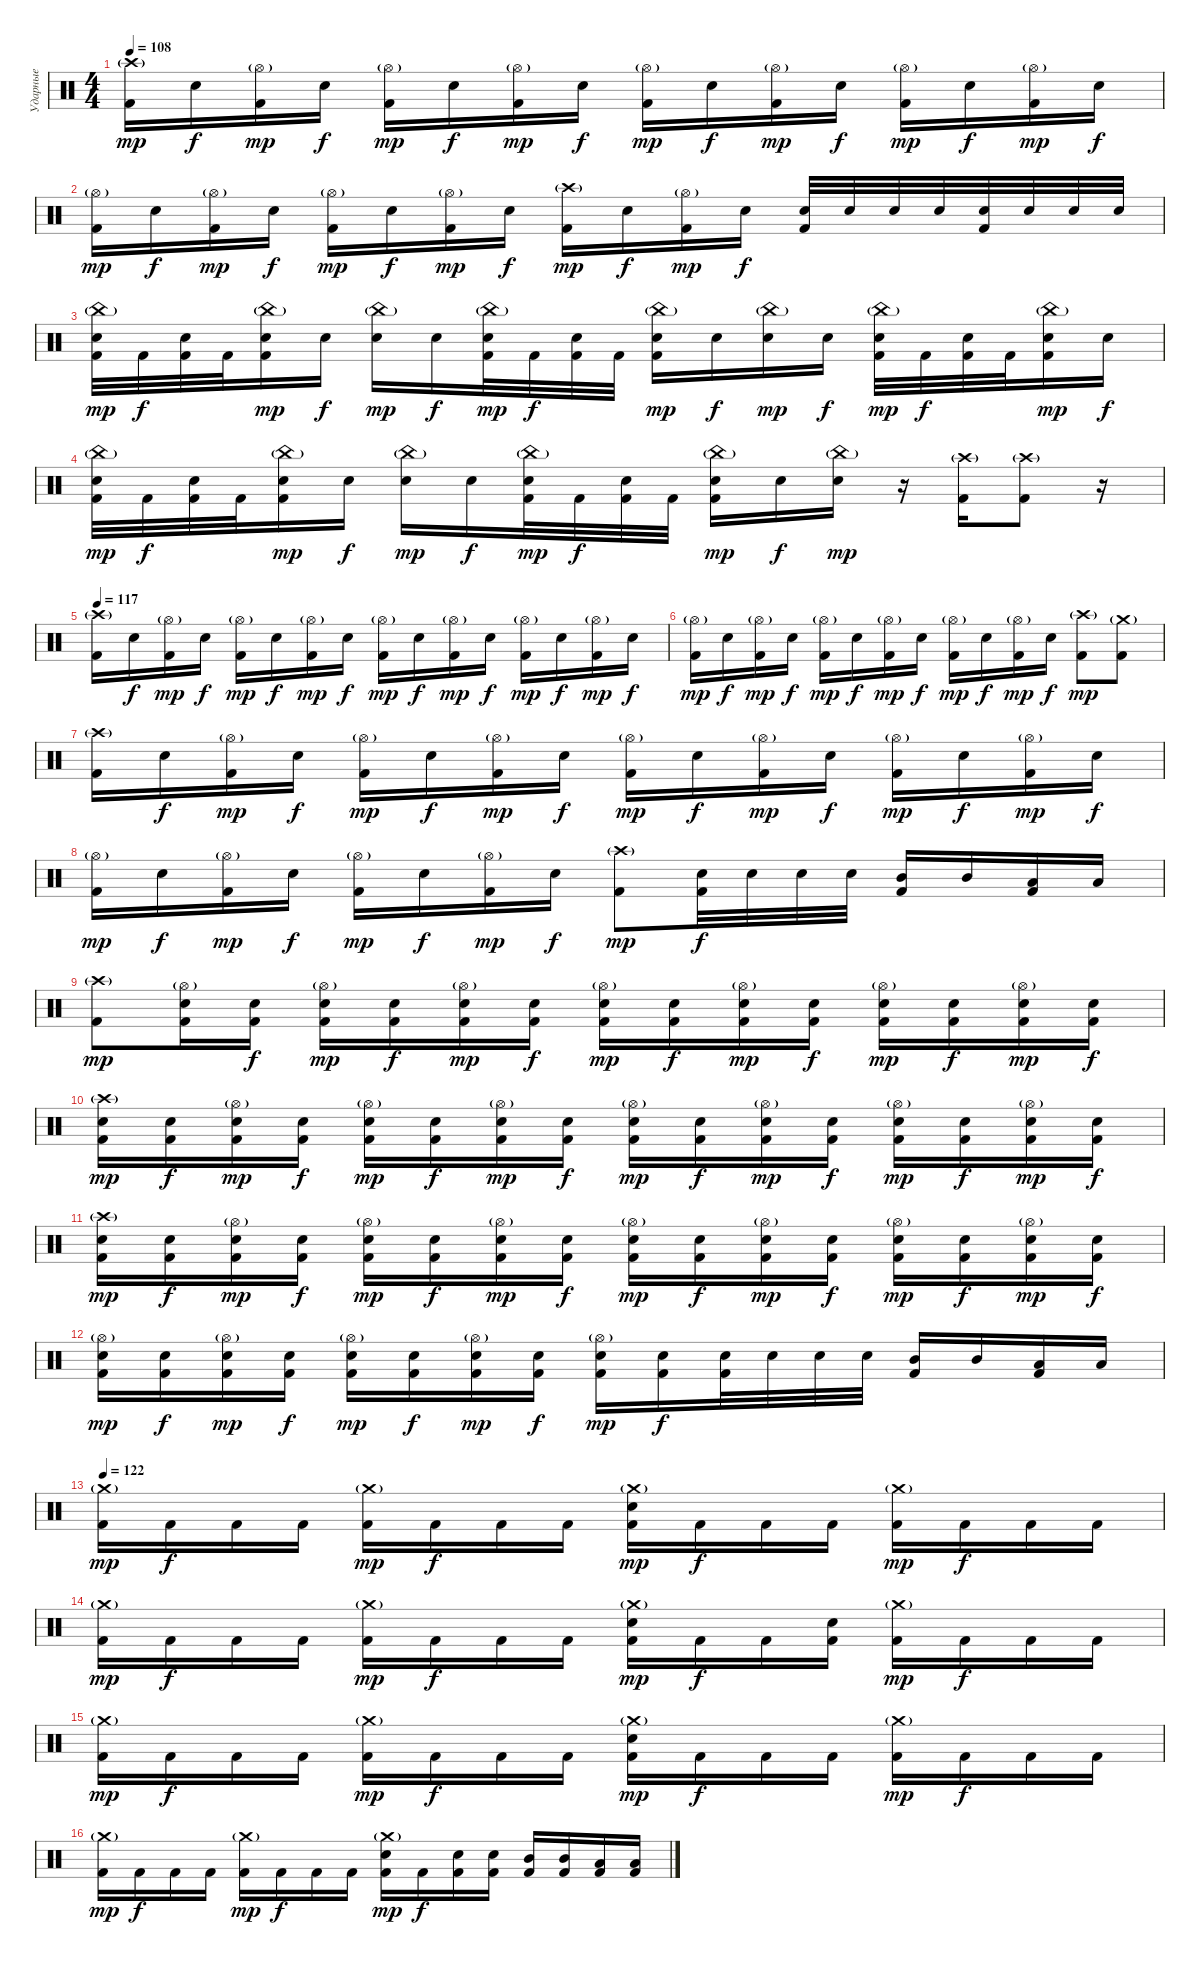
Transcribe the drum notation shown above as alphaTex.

\track ("Ударные" "Ударные") {instrument percussion}
\staff {score}
\articulation defaults
\ts (4 4)
\tempo 108
\clef neutral
\ks c
("Crash high (hit)"{g} "Kick (hit) 2").16{dy mp} "Electric Snare (hit)".16{dy f} ("Hi-Hat (open)"{g} "Kick (hit) 2").16{dy mp} "Electric Snare (hit)".16{dy f} ("Hi-Hat (open)"{g} "Kick (hit) 2").16{dy mp} "Electric Snare (hit)".16{dy f} ("Hi-Hat (open)"{g} "Kick (hit) 2").16{dy mp} "Electric Snare (hit)".16{dy f} ("Hi-Hat (open)"{g} "Kick (hit) 2").16{dy mp} "Electric Snare (hit)".16{dy f} ("Hi-Hat (open)"{g} "Kick (hit) 2").16{dy mp} "Electric Snare (hit)".16{dy f} ("Hi-Hat (open)"{g} "Kick (hit) 2").16{dy mp} "Electric Snare (hit)".16{dy f} ("Hi-Hat (open)"{g} "Kick (hit) 2").16{dy mp} "Electric Snare (hit)".16{dy f} |
("Hi-Hat (open)"{g} "Kick (hit) 2").16{dy mp} "Electric Snare (hit)".16{dy f} ("Hi-Hat (open)"{g} "Kick (hit) 2").16{dy mp} "Electric Snare (hit)".16{dy f} ("Hi-Hat (open)"{g} "Kick (hit) 2").16{dy mp} "Electric Snare (hit)".16{dy f} ("Hi-Hat (open)"{g} "Kick (hit) 2").16{dy mp} "Electric Snare (hit)".16{dy f} ("Crash high (hit)"{g} "Kick (hit) 2").16{dy mp} "Electric Snare (hit)".16{dy f} ("Hi-Hat (open)"{g} "Kick (hit) 2").16{dy mp} "Electric Snare (hit)".16{dy f} ("Electric Snare (hit)" "Kick (hit) 2").32 "Electric Snare (hit)".32 "Electric Snare (hit)".32 "Electric Snare (hit)".32 ("Electric Snare (hit)" "Kick (hit) 2").32 "Electric Snare (hit)".32 "Electric Snare (hit)".32 "Electric Snare (hit)".32 |
("China (hit)"{g} "Electric Snare (hit)" "Kick (hit) 2").32{dy mp} "Kick (hit) 2".32{dy f} ("Electric Snare (hit)" "Kick (hit) 2").32 "Kick (hit) 2".32 ("China (hit)"{g} "Electric Snare (hit)" "Kick (hit) 2").16{dy mp} "Electric Snare (hit)".16{dy f} ("China (hit)"{g} "Electric Snare (hit)").16{dy mp} "Electric Snare (hit)".16{dy f} ("China (hit)"{g} "Electric Snare (hit)" "Kick (hit) 2").32{dy mp} "Kick (hit) 2".32{dy f} ("Electric Snare (hit)" "Kick (hit) 2").32 "Kick (hit) 2".32 ("China (hit)"{g} "Electric Snare (hit)" "Kick (hit) 2").16{dy mp} "Electric Snare (hit)".16{dy f} ("China (hit)"{g} "Electric Snare (hit)").16{dy mp} "Electric Snare (hit)".16{dy f} ("China (hit)"{g} "Electric Snare (hit)" "Kick (hit) 2").32{dy mp} "Kick (hit) 2".32{dy f} ("Electric Snare (hit)" "Kick (hit) 2").32 "Kick (hit) 2".32 ("China (hit)"{g} "Electric Snare (hit)" "Kick (hit) 2").16{dy mp} "Electric Snare (hit)".16{dy f} |
("China (hit)"{g} "Electric Snare (hit)" "Kick (hit) 2").32{dy mp} "Kick (hit) 2".32{dy f} ("Electric Snare (hit)" "Kick (hit) 2").32 "Kick (hit) 2".32 ("China (hit)"{g} "Electric Snare (hit)" "Kick (hit) 2").16{dy mp} "Electric Snare (hit)".16{dy f} ("China (hit)"{g} "Electric Snare (hit)").16{dy mp} "Electric Snare (hit)".16{dy f} ("China (hit)"{g} "Electric Snare (hit)" "Kick (hit) 2").32{dy mp} "Kick (hit) 2".32{dy f} ("Electric Snare (hit)" "Kick (hit) 2").32 "Kick (hit) 2".32 ("China (hit)"{g} "Electric Snare (hit)" "Kick (hit) 2").16{dy mp} "Electric Snare (hit)".16{dy f} ("China (hit)"{g} "Electric Snare (hit)").16{dy mp} r.16 ("Crash high (hit)"{g} "Kick (hit) 2").16 ("Crash high (hit)"{g} "Kick (hit) 2").8 r.16{volume 0} |
\tempo 117
("Crash high (hit)"{g} "Kick (hit) 2").16{volume 16} "Electric Snare (hit)".16{dy f} ("Hi-Hat (open)"{g} "Kick (hit) 2").16{dy mp} "Electric Snare (hit)".16{dy f} ("Hi-Hat (open)"{g} "Kick (hit) 2").16{dy mp} "Electric Snare (hit)".16{dy f} ("Hi-Hat (open)"{g} "Kick (hit) 2").16{dy mp} "Electric Snare (hit)".16{dy f} ("Hi-Hat (open)"{g} "Kick (hit) 2").16{dy mp} "Electric Snare (hit)".16{dy f} ("Hi-Hat (open)"{g} "Kick (hit) 2").16{dy mp} "Electric Snare (hit)".16{dy f} ("Hi-Hat (open)"{g} "Kick (hit) 2").16{dy mp} "Electric Snare (hit)".16{dy f} ("Hi-Hat (open)"{g} "Kick (hit) 2").16{dy mp} "Electric Snare (hit)".16{dy f} |
("Hi-Hat (open)"{g} "Kick (hit) 2").16{dy mp} "Electric Snare (hit)".16{dy f} ("Hi-Hat (open)"{g} "Kick (hit) 2").16{dy mp} "Electric Snare (hit)".16{dy f} ("Hi-Hat (open)"{g} "Kick (hit) 2").16{dy mp} "Electric Snare (hit)".16{dy f} ("Hi-Hat (open)"{g} "Kick (hit) 2").16{dy mp} "Electric Snare (hit)".16{dy f} ("Hi-Hat (open)"{g} "Kick (hit) 2").16{dy mp} "Electric Snare (hit)".16{dy f} ("Hi-Hat (open)"{g} "Kick (hit) 2").16{dy mp} "Electric Snare (hit)".16{dy f} ("Crash high (hit)"{g} "Kick (hit) 2").8{dy mp} ("Crash medium (hit)"{g} "Kick (hit) 2").8 |
("Crash high (hit)"{g} "Kick (hit) 2").16 "Electric Snare (hit)".16{dy f} ("Hi-Hat (open)"{g} "Kick (hit) 2").16{dy mp} "Electric Snare (hit)".16{dy f} ("Hi-Hat (open)"{g} "Kick (hit) 2").16{dy mp} "Electric Snare (hit)".16{dy f} ("Hi-Hat (open)"{g} "Kick (hit) 2").16{dy mp} "Electric Snare (hit)".16{dy f} ("Hi-Hat (open)"{g} "Kick (hit) 2").16{dy mp} "Electric Snare (hit)".16{dy f} ("Hi-Hat (open)"{g} "Kick (hit) 2").16{dy mp} "Electric Snare (hit)".16{dy f} ("Hi-Hat (open)"{g} "Kick (hit) 2").16{dy mp} "Electric Snare (hit)".16{dy f} ("Hi-Hat (open)"{g} "Kick (hit) 2").16{dy mp} "Electric Snare (hit)".16{dy f} |
("Hi-Hat (open)"{g} "Kick (hit) 2").16{dy mp} "Electric Snare (hit)".16{dy f} ("Hi-Hat (open)"{g} "Kick (hit) 2").16{dy mp} "Electric Snare (hit)".16{dy f} ("Hi-Hat (open)"{g} "Kick (hit) 2").16{dy mp} "Electric Snare (hit)".16{dy f} ("Hi-Hat (open)"{g} "Kick (hit) 2").16{dy mp} "Electric Snare (hit)".16{dy f} ("Crash high (hit)"{g} "Kick (hit) 2").8{dy mp} ("Electric Snare (hit)" "Kick (hit) 2").32{dy f} "Electric Snare (hit)".32 "Electric Snare (hit)".32 "Electric Snare (hit)".32 ("Mid Tom (hit)" "Kick (hit) 2").16 "Mid Tom (hit)".16 ("Low Tom (hit)" "Kick (hit) 2").16 "Low Tom (hit)".16 |
("Crash high (hit)"{g} "Kick (hit) 2").8{dy mp} ("Hi-Hat (open)"{g} "Electric Snare (hit)" "Kick (hit) 2").16 ("Electric Snare (hit)" "Kick (hit) 2").16{dy f} ("Hi-Hat (open)"{g} "Electric Snare (hit)" "Kick (hit) 2").16{dy mp} ("Electric Snare (hit)" "Kick (hit) 2").16{dy f} ("Hi-Hat (open)"{g} "Electric Snare (hit)" "Kick (hit) 2").16{dy mp} ("Electric Snare (hit)" "Kick (hit) 2").16{dy f} ("Hi-Hat (open)"{g} "Electric Snare (hit)" "Kick (hit) 2").16{dy mp} ("Electric Snare (hit)" "Kick (hit) 2").16{dy f} ("Hi-Hat (open)"{g} "Electric Snare (hit)" "Kick (hit) 2").16{dy mp} ("Electric Snare (hit)" "Kick (hit) 2").16{dy f} ("Hi-Hat (open)"{g} "Electric Snare (hit)" "Kick (hit) 2").16{dy mp} ("Electric Snare (hit)" "Kick (hit) 2").16{dy f} ("Hi-Hat (open)"{g} "Electric Snare (hit)" "Kick (hit) 2").16{dy mp} ("Electric Snare (hit)" "Kick (hit) 2").16{dy f} |
("Crash high (hit)"{g} "Electric Snare (hit)" "Kick (hit) 2").16{dy mp} ("Electric Snare (hit)" "Kick (hit) 2").16{dy f} ("Hi-Hat (open)"{g} "Electric Snare (hit)" "Kick (hit) 2").16{dy mp} ("Electric Snare (hit)" "Kick (hit) 2").16{dy f} ("Hi-Hat (open)"{g} "Electric Snare (hit)" "Kick (hit) 2").16{dy mp} ("Electric Snare (hit)" "Kick (hit) 2").16{dy f} ("Hi-Hat (open)"{g} "Electric Snare (hit)" "Kick (hit) 2").16{dy mp} ("Electric Snare (hit)" "Kick (hit) 2").16{dy f} ("Hi-Hat (open)"{g} "Electric Snare (hit)" "Kick (hit) 2").16{dy mp} ("Electric Snare (hit)" "Kick (hit) 2").16{dy f} ("Hi-Hat (open)"{g} "Electric Snare (hit)" "Kick (hit) 2").16{dy mp} ("Electric Snare (hit)" "Kick (hit) 2").16{dy f} ("Hi-Hat (open)"{g} "Electric Snare (hit)" "Kick (hit) 2").16{dy mp} ("Electric Snare (hit)" "Kick (hit) 2").16{dy f} ("Hi-Hat (open)"{g} "Electric Snare (hit)" "Kick (hit) 2").16{dy mp} ("Electric Snare (hit)" "Kick (hit) 2").16{dy f} |
("Crash high (hit)"{g} "Electric Snare (hit)" "Kick (hit) 2").16{dy mp} ("Electric Snare (hit)" "Kick (hit) 2").16{dy f} ("Hi-Hat (open)"{g} "Electric Snare (hit)" "Kick (hit) 2").16{dy mp} ("Electric Snare (hit)" "Kick (hit) 2").16{dy f} ("Hi-Hat (open)"{g} "Electric Snare (hit)" "Kick (hit) 2").16{dy mp} ("Electric Snare (hit)" "Kick (hit) 2").16{dy f} ("Hi-Hat (open)"{g} "Electric Snare (hit)" "Kick (hit) 2").16{dy mp} ("Electric Snare (hit)" "Kick (hit) 2").16{dy f} ("Hi-Hat (open)"{g} "Electric Snare (hit)" "Kick (hit) 2").16{dy mp} ("Electric Snare (hit)" "Kick (hit) 2").16{dy f} ("Hi-Hat (open)"{g} "Electric Snare (hit)" "Kick (hit) 2").16{dy mp} ("Electric Snare (hit)" "Kick (hit) 2").16{dy f} ("Hi-Hat (open)"{g} "Electric Snare (hit)" "Kick (hit) 2").16{dy mp} ("Electric Snare (hit)" "Kick (hit) 2").16{dy f} ("Hi-Hat (open)"{g} "Electric Snare (hit)" "Kick (hit) 2").16{dy mp} ("Electric Snare (hit)" "Kick (hit) 2").16{dy f} |
("Hi-Hat (open)"{g} "Electric Snare (hit)" "Kick (hit) 2").16{dy mp} ("Electric Snare (hit)" "Kick (hit) 2").16{dy f} ("Hi-Hat (open)"{g} "Electric Snare (hit)" "Kick (hit) 2").16{dy mp} ("Electric Snare (hit)" "Kick (hit) 2").16{dy f} ("Hi-Hat (open)"{g} "Electric Snare (hit)" "Kick (hit) 2").16{dy mp} ("Electric Snare (hit)" "Kick (hit) 2").16{dy f} ("Hi-Hat (open)"{g} "Electric Snare (hit)" "Kick (hit) 2").16{dy mp} ("Electric Snare (hit)" "Kick (hit) 2").16{dy f} ("Hi-Hat (open)"{g} "Electric Snare (hit)" "Kick (hit) 2").16{dy mp} ("Electric Snare (hit)" "Kick (hit) 2").16{dy f} ("Electric Snare (hit)" "Kick (hit) 2").32 "Electric Snare (hit)".32 "Electric Snare (hit)".32 "Electric Snare (hit)".32 ("Mid Tom (hit)" "Kick (hit) 2").16 "Mid Tom (hit)".16 ("Low Tom (hit)" "Kick (hit) 2").16 "Low Tom (hit)".16 |
\tempo 122
("Crash medium (hit)"{g} "Kick (hit) 2").16{dy mp} "Kick (hit) 2".16{dy f} "Kick (hit) 2".16 "Kick (hit) 2".16 ("Crash medium (hit)"{g} "Kick (hit) 2").16{dy mp} "Kick (hit) 2".16{dy f} "Kick (hit) 2".16 "Kick (hit) 2".16 ("Crash medium (hit)"{g} "Electric Snare (hit)" "Kick (hit) 2").16{dy mp} "Kick (hit) 2".16{dy f} "Kick (hit) 2".16 "Kick (hit) 2".16 ("Crash medium (hit)"{g} "Kick (hit) 2").16{dy mp} "Kick (hit) 2".16{dy f} "Kick (hit) 2".16 "Kick (hit) 2".16 |
("Crash medium (hit)"{g} "Kick (hit) 2").16{dy mp} "Kick (hit) 2".16{dy f} "Kick (hit) 2".16 "Kick (hit) 2".16 ("Crash medium (hit)"{g} "Kick (hit) 2").16{dy mp} "Kick (hit) 2".16{dy f} "Kick (hit) 2".16 "Kick (hit) 2".16 ("Crash medium (hit)"{g} "Electric Snare (hit)" "Kick (hit) 2").16{dy mp} "Kick (hit) 2".16{dy f} "Kick (hit) 2".16 ("Electric Snare (hit)" "Kick (hit) 2").16 ("Crash medium (hit)"{g} "Kick (hit) 2").16{dy mp} "Kick (hit) 2".16{dy f} "Kick (hit) 2".16 "Kick (hit) 2".16 |
("Crash medium (hit)"{g} "Kick (hit) 2").16{dy mp} "Kick (hit) 2".16{dy f} "Kick (hit) 2".16 "Kick (hit) 2".16 ("Crash medium (hit)"{g} "Kick (hit) 2").16{dy mp} "Kick (hit) 2".16{dy f} "Kick (hit) 2".16 "Kick (hit) 2".16 ("Crash medium (hit)"{g} "Electric Snare (hit)" "Kick (hit) 2").16{dy mp} "Kick (hit) 2".16{dy f} "Kick (hit) 2".16 "Kick (hit) 2".16 ("Crash medium (hit)"{g} "Kick (hit) 2").16{dy mp} "Kick (hit) 2".16{dy f} "Kick (hit) 2".16 "Kick (hit) 2".16 |
("Crash medium (hit)"{g} "Kick (hit) 2").16{dy mp} "Kick (hit) 2".16{dy f} "Kick (hit) 2".16 "Kick (hit) 2".16 ("Crash medium (hit)"{g} "Kick (hit) 2").16{dy mp} "Kick (hit) 2".16{dy f} "Kick (hit) 2".16 "Kick (hit) 2".16 ("Crash medium (hit)"{g} "Electric Snare (hit)" "Kick (hit) 2").16{dy mp} "Kick (hit) 2".16{dy f} ("Electric Snare (hit)" "Kick (hit) 2").16 ("Electric Snare (hit)" "Kick (hit) 2").16 ("Mid Tom (hit)" "Kick (hit) 2").16 ("Mid Tom (hit)" "Kick (hit) 2").16 ("Low Tom (hit)" "Kick (hit) 2").16 ("Low Tom (hit)" "Kick (hit) 2").16
